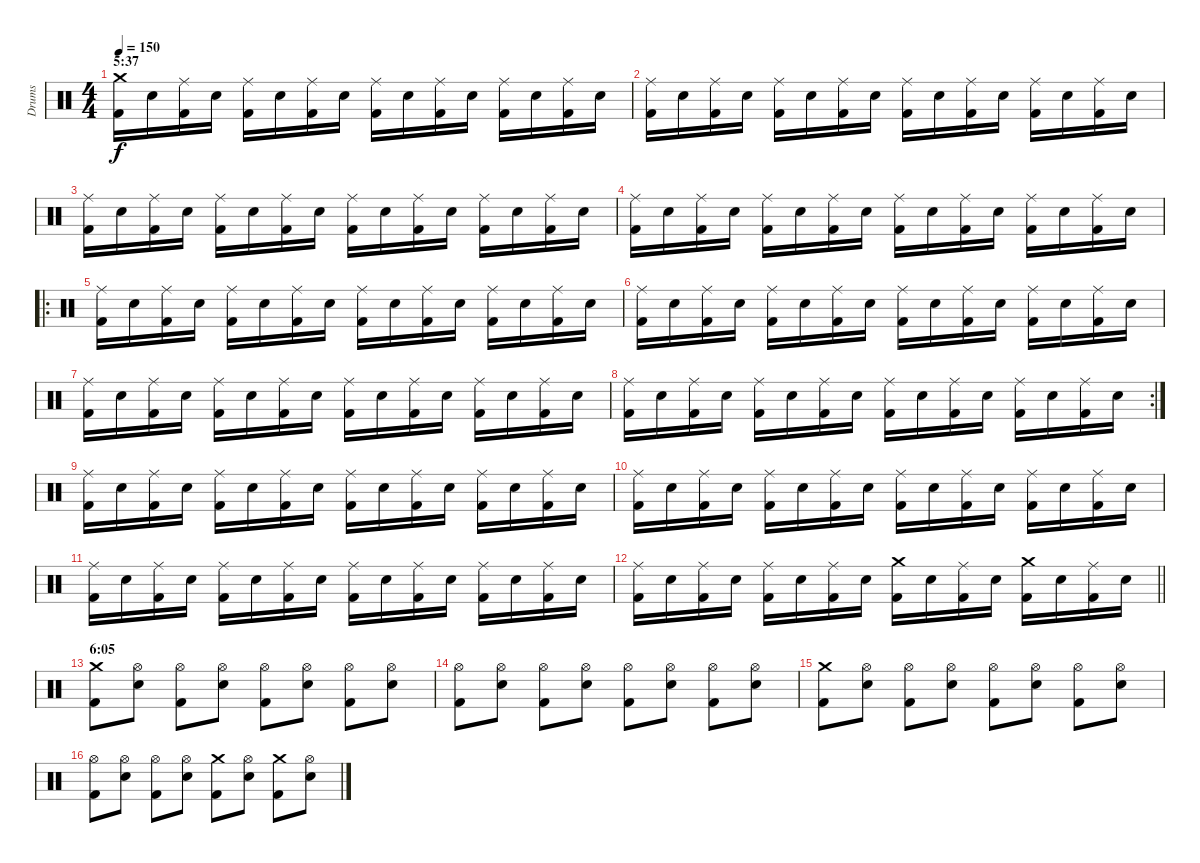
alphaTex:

\track ("Drums" "Drums") {instrument percussion}
\staff {score}
\articulation defaults
\ts (4 4)
\section ("" "5:37")
\tempo 150
\clef neutral
\ks c
("Crash medium (hit)" "Kick (hit) 2").16{dy f} "Electric Snare (hit)".16 ("Ride (middle)" "Kick (hit) 2").16 "Electric Snare (hit)".16 ("Ride (middle)" "Kick (hit) 2").16 "Electric Snare (hit)".16 ("Ride (middle)" "Kick (hit) 2").16 "Electric Snare (hit)".16 ("Ride (middle)" "Kick (hit) 2").16 "Electric Snare (hit)".16 ("Ride (middle)" "Kick (hit) 2").16 "Electric Snare (hit)".16 ("Ride (middle)" "Kick (hit) 2").16 "Electric Snare (hit)".16 ("Ride (middle)" "Kick (hit) 2").16 "Electric Snare (hit)".16 |
("Ride (middle)" "Kick (hit) 2").16 "Electric Snare (hit)".16 ("Ride (middle)" "Kick (hit) 2").16 "Electric Snare (hit)".16 ("Ride (middle)" "Kick (hit) 2").16 "Electric Snare (hit)".16 ("Ride (middle)" "Kick (hit) 2").16 "Electric Snare (hit)".16 ("Ride (middle)" "Kick (hit) 2").16 "Electric Snare (hit)".16 ("Ride (middle)" "Kick (hit) 2").16 "Electric Snare (hit)".16 ("Ride (middle)" "Kick (hit) 2").16 "Electric Snare (hit)".16 ("Ride (middle)" "Kick (hit) 2").16 "Electric Snare (hit)".16 |
("Ride (middle)" "Kick (hit) 2").16 "Electric Snare (hit)".16 ("Ride (middle)" "Kick (hit) 2").16 "Electric Snare (hit)".16 ("Ride (middle)" "Kick (hit) 2").16 "Electric Snare (hit)".16 ("Ride (middle)" "Kick (hit) 2").16 "Electric Snare (hit)".16 ("Ride (middle)" "Kick (hit) 2").16 "Electric Snare (hit)".16 ("Ride (middle)" "Kick (hit) 2").16 "Electric Snare (hit)".16 ("Ride (middle)" "Kick (hit) 2").16 "Electric Snare (hit)".16 ("Ride (middle)" "Kick (hit) 2").16 "Electric Snare (hit)".16 |
("Ride (middle)" "Kick (hit) 2").16 "Electric Snare (hit)".16 ("Ride (middle)" "Kick (hit) 2").16 "Electric Snare (hit)".16 ("Ride (middle)" "Kick (hit) 2").16 "Electric Snare (hit)".16 ("Ride (middle)" "Kick (hit) 2").16 "Electric Snare (hit)".16 ("Ride (middle)" "Kick (hit) 2").16 "Electric Snare (hit)".16 ("Ride (middle)" "Kick (hit) 2").16 "Electric Snare (hit)".16 ("Ride (middle)" "Kick (hit) 2").16 "Electric Snare (hit)".16 ("Ride (middle)" "Kick (hit) 2").16 "Electric Snare (hit)".16 |
\ro
("Ride (middle)" "Kick (hit) 2").16 "Electric Snare (hit)".16 ("Ride (middle)" "Kick (hit) 2").16 "Electric Snare (hit)".16 ("Ride (middle)" "Kick (hit) 2").16 "Electric Snare (hit)".16 ("Ride (middle)" "Kick (hit) 2").16 "Electric Snare (hit)".16 ("Ride (middle)" "Kick (hit) 2").16 "Electric Snare (hit)".16 ("Ride (middle)" "Kick (hit) 2").16 "Electric Snare (hit)".16 ("Ride (middle)" "Kick (hit) 2").16 "Electric Snare (hit)".16 ("Ride (middle)" "Kick (hit) 2").16 "Electric Snare (hit)".16 |
("Ride (middle)" "Kick (hit) 2").16 "Electric Snare (hit)".16 ("Ride (middle)" "Kick (hit) 2").16 "Electric Snare (hit)".16 ("Ride (middle)" "Kick (hit) 2").16 "Electric Snare (hit)".16 ("Ride (middle)" "Kick (hit) 2").16 "Electric Snare (hit)".16 ("Ride (middle)" "Kick (hit) 2").16 "Electric Snare (hit)".16 ("Ride (middle)" "Kick (hit) 2").16 "Electric Snare (hit)".16 ("Ride (middle)" "Kick (hit) 2").16 "Electric Snare (hit)".16 ("Ride (middle)" "Kick (hit) 2").16 "Electric Snare (hit)".16 |
("Ride (middle)" "Kick (hit) 2").16 "Electric Snare (hit)".16 ("Ride (middle)" "Kick (hit) 2").16 "Electric Snare (hit)".16 ("Ride (middle)" "Kick (hit) 2").16 "Electric Snare (hit)".16 ("Ride (middle)" "Kick (hit) 2").16 "Electric Snare (hit)".16 ("Ride (middle)" "Kick (hit) 2").16 "Electric Snare (hit)".16 ("Ride (middle)" "Kick (hit) 2").16 "Electric Snare (hit)".16 ("Ride (middle)" "Kick (hit) 2").16 "Electric Snare (hit)".16 ("Ride (middle)" "Kick (hit) 2").16 "Electric Snare (hit)".16 |
\rc 2
("Ride (middle)" "Kick (hit) 2").16 "Electric Snare (hit)".16 ("Ride (middle)" "Kick (hit) 2").16 "Electric Snare (hit)".16 ("Ride (middle)" "Kick (hit) 2").16 "Electric Snare (hit)".16 ("Ride (middle)" "Kick (hit) 2").16 "Electric Snare (hit)".16 ("Ride (middle)" "Kick (hit) 2").16 "Electric Snare (hit)".16 ("Ride (middle)" "Kick (hit) 2").16 "Electric Snare (hit)".16 ("Ride (middle)" "Kick (hit) 2").16 "Electric Snare (hit)".16 ("Ride (middle)" "Kick (hit) 2").16 "Electric Snare (hit)".16 |
("Ride (middle)" "Kick (hit) 2").16 "Electric Snare (hit)".16 ("Ride (middle)" "Kick (hit) 2").16 "Electric Snare (hit)".16 ("Ride (middle)" "Kick (hit) 2").16 "Electric Snare (hit)".16 ("Ride (middle)" "Kick (hit) 2").16 "Electric Snare (hit)".16 ("Ride (middle)" "Kick (hit) 2").16 "Electric Snare (hit)".16 ("Ride (middle)" "Kick (hit) 2").16 "Electric Snare (hit)".16 ("Ride (middle)" "Kick (hit) 2").16 "Electric Snare (hit)".16 ("Ride (middle)" "Kick (hit) 2").16 "Electric Snare (hit)".16 |
("Ride (middle)" "Kick (hit) 2").16 "Electric Snare (hit)".16 ("Ride (middle)" "Kick (hit) 2").16 "Electric Snare (hit)".16 ("Ride (middle)" "Kick (hit) 2").16 "Electric Snare (hit)".16 ("Ride (middle)" "Kick (hit) 2").16 "Electric Snare (hit)".16 ("Ride (middle)" "Kick (hit) 2").16 "Electric Snare (hit)".16 ("Ride (middle)" "Kick (hit) 2").16 "Electric Snare (hit)".16 ("Ride (middle)" "Kick (hit) 2").16 "Electric Snare (hit)".16 ("Ride (middle)" "Kick (hit) 2").16 "Electric Snare (hit)".16 |
("Ride (middle)" "Kick (hit) 2").16 "Electric Snare (hit)".16 ("Ride (middle)" "Kick (hit) 2").16 "Electric Snare (hit)".16 ("Ride (middle)" "Kick (hit) 2").16 "Electric Snare (hit)".16 ("Ride (middle)" "Kick (hit) 2").16 "Electric Snare (hit)".16 ("Ride (middle)" "Kick (hit) 2").16 "Electric Snare (hit)".16 ("Ride (middle)" "Kick (hit) 2").16 "Electric Snare (hit)".16 ("Ride (middle)" "Kick (hit) 2").16 "Electric Snare (hit)".16 ("Ride (middle)" "Kick (hit) 2").16 "Electric Snare (hit)".16 |
\barLineRight lightlight
("Ride (middle)" "Kick (hit) 2").16 "Electric Snare (hit)".16 ("Ride (middle)" "Kick (hit) 2").16 "Electric Snare (hit)".16 ("Ride (middle)" "Kick (hit) 2").16 "Electric Snare (hit)".16 ("Ride (middle)" "Kick (hit) 2").16 "Electric Snare (hit)".16 ("Crash medium (hit)" "Kick (hit) 2").16 "Electric Snare (hit)".16 ("Ride (middle)" "Kick (hit) 2").16 "Electric Snare (hit)".16 ("Crash medium (hit)" "Kick (hit) 2").16 "Electric Snare (hit)".16 ("Ride (middle)" "Kick (hit) 2").16 "Electric Snare (hit)".16 |
\section ("" "6:05")
("Crash medium (hit)" "Kick (hit) 2").8 ("Hi-Hat (open)" "Electric Snare (hit)").8 ("Hi-Hat (open)" "Kick (hit) 2").8 ("Hi-Hat (open)" "Electric Snare (hit)").8 ("Hi-Hat (open)" "Kick (hit) 2").8 ("Hi-Hat (open)" "Electric Snare (hit)").8 ("Hi-Hat (open)" "Kick (hit) 2").8 ("Hi-Hat (open)" "Electric Snare (hit)").8 |
("Hi-Hat (open)" "Kick (hit) 2").8 ("Hi-Hat (open)" "Electric Snare (hit)").8 ("Hi-Hat (open)" "Kick (hit) 2").8 ("Hi-Hat (open)" "Electric Snare (hit)").8 ("Hi-Hat (open)" "Kick (hit) 2").8 ("Hi-Hat (open)" "Electric Snare (hit)").8 ("Hi-Hat (open)" "Kick (hit) 2").8 ("Hi-Hat (open)" "Electric Snare (hit)").8 |
("Crash medium (hit)" "Kick (hit) 2").8 ("Hi-Hat (open)" "Electric Snare (hit)").8 ("Hi-Hat (open)" "Kick (hit) 2").8 ("Hi-Hat (open)" "Electric Snare (hit)").8 ("Hi-Hat (open)" "Kick (hit) 2").8 ("Hi-Hat (open)" "Electric Snare (hit)").8 ("Hi-Hat (open)" "Kick (hit) 2").8 ("Hi-Hat (open)" "Electric Snare (hit)").8 |
("Hi-Hat (open)" "Kick (hit) 2").8 ("Hi-Hat (open)" "Electric Snare (hit)").8 ("Hi-Hat (open)" "Kick (hit) 2").8 ("Hi-Hat (open)" "Electric Snare (hit)").8 ("Crash medium (hit)" "Kick (hit) 2").8 ("Hi-Hat (open)" "Electric Snare (hit)").8 ("Crash medium (hit)" "Kick (hit) 2").8 ("Hi-Hat (open)" "Electric Snare (hit)").8
